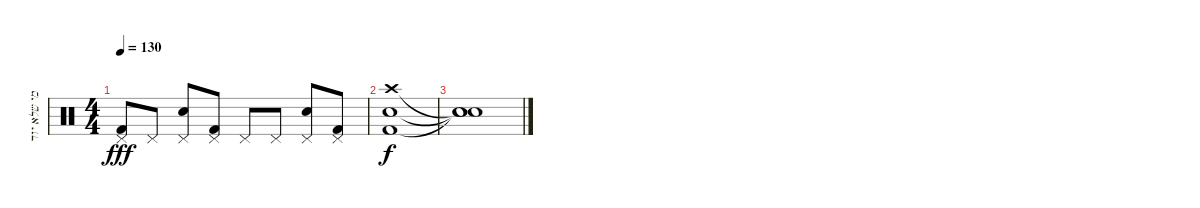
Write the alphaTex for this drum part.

\track ("מי שלא יודע עברית סתם הומו" "מי שלא יוד") {instrument percussion}
\staff {score}
\articulation defaults
\ts (4 4)
\tempo 130
\clef neutral
\ks c
("Pedal Hi-Hat (hit)" "Kick (hit) 2").8{dy fff} "Pedal Hi-Hat (hit)".8 ("Pedal Hi-Hat (hit)" "Snare (hit) 2").8 ("Pedal Hi-Hat (hit)" "Kick (hit) 2").8 "Pedal Hi-Hat (hit)".8 "Pedal Hi-Hat (hit)".8 ("Pedal Hi-Hat (hit)" "Snare (hit) 2").8 ("Pedal Hi-Hat (hit)" "Kick (hit) 2").8 |
("Crash high (hit)" "Electric Snare (hit)" "Kick (hit) 2").1{dy f} |
("Snare (hit)"{t} "Snare (hit)"{t} "Snare (hit)"{t}).1
